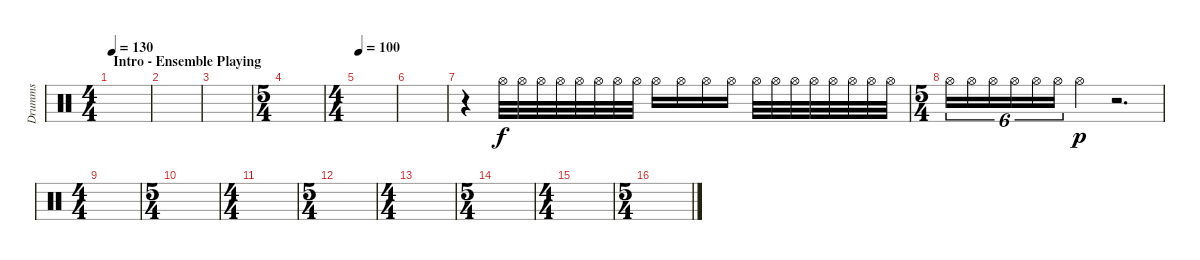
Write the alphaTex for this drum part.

\track ("Drumms" "Drumms") {instrument percussion}
\staff {score}
\articulation defaults
\ts (4 4)
\section ("" "Intro - Ensemble Playing")
\tempo 130
\clef neutral
\ks c
|
|
|
\ts (5 4)
|
\ts (4 4)
\tempo 100
|
|
r.4 "Hi-Hat (open)".32 "Hi-Hat (open)".32 "Hi-Hat (open)".32 "Hi-Hat (open)".32 "Hi-Hat (open)".32 "Hi-Hat (open)".32 "Hi-Hat (open)".32 "Hi-Hat (open)".32 "Hi-Hat (open)".16 "Hi-Hat (open)".16 "Hi-Hat (open)".16 "Hi-Hat (open)".16 "Hi-Hat (open)".32 "Hi-Hat (open)".32 "Hi-Hat (open)".32 "Hi-Hat (open)".32 "Hi-Hat (open)".32 "Hi-Hat (open)".32 "Hi-Hat (open)".32 "Hi-Hat (open)".32 |
\ts (5 4)
"Hi-Hat (open)".16{tu (6 4)} "Hi-Hat (open)".16{tu (6 4)} "Hi-Hat (open)".16{tu (6 4)} "Hi-Hat (open)".16{tu (6 4)} "Hi-Hat (open)".16{tu (6 4)} "Hi-Hat (open)".16{tu (6 4)} "Hi-Hat (open)".4{dy p} r.2{d} |
\ts (4 4)
|
\ts (5 4)
|
\ts (4 4)
|
\ts (5 4)
|
\ts (4 4)
|
\ts (5 4)
|
\ts (4 4)
|
\ts (5 4)
